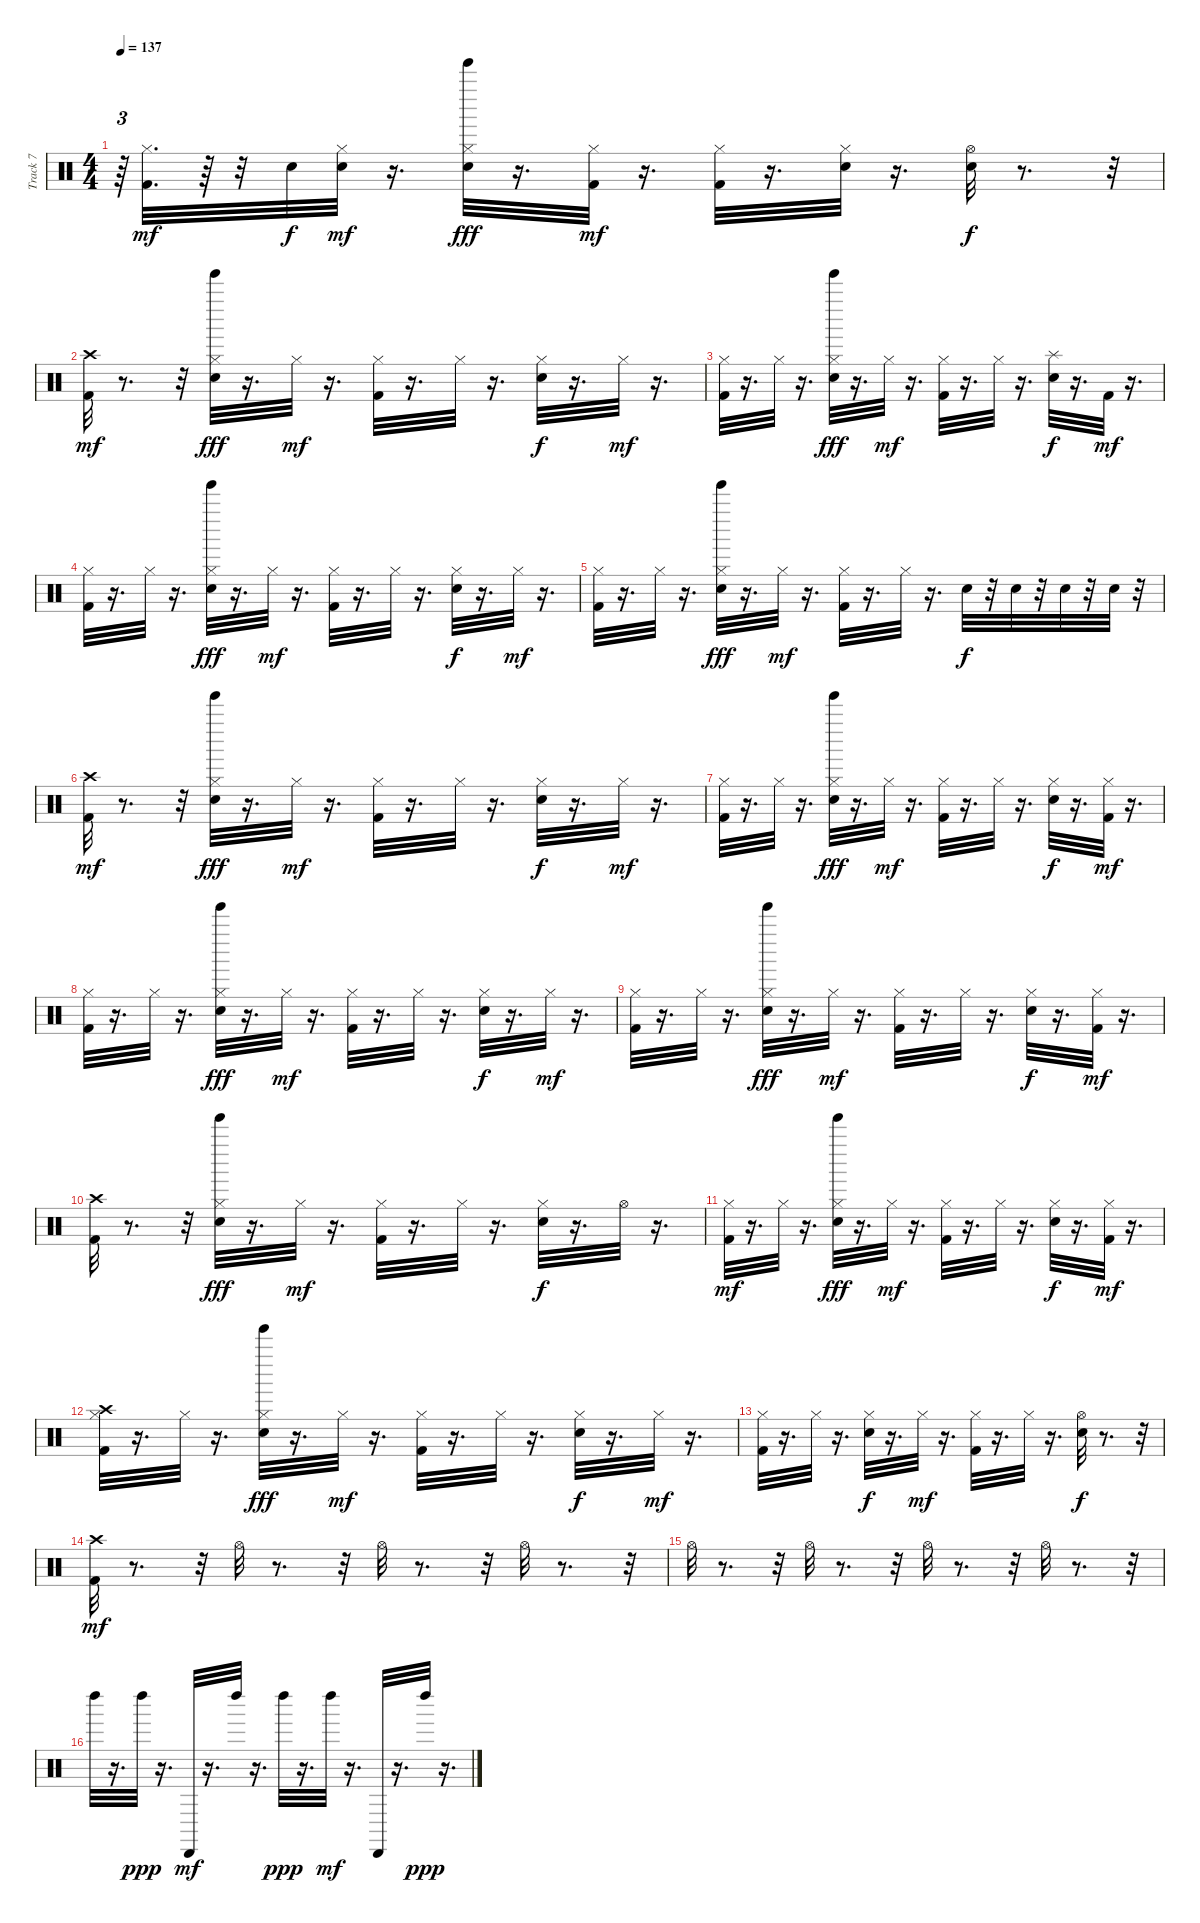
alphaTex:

\track ("Track 7" "Track 7") {instrument percussion}
\staff {score}
\articulation defaults
\ts (4 4)
\tempo 137
\clef neutral
\ks c
r.64{tu (3 2) dy mf} ("Kick (hit) 2" "Hi-Hat (closed)").32{d} r.64 r.32 "Snare (hit) 2".32{dy f} ("Hi-Hat (closed)" "Snare (hit) 2").32{dy mf} r.16{d} ("Tinkle Bell (hit)" "Snare (hit) 2" "Hi-Hat (closed)").32{dy fff} r.16{d} ("Kick (hit) 2" "Hi-Hat (closed)").32{dy mf} r.16{d} ("Kick (hit) 2" "Hi-Hat (closed)").32 r.16{d} ("Snare (hit) 2" "Hi-Hat (closed)").32 r.16{d} ("Hi-Hat (open)" "Snare (hit) 2").32{dy f} r.8{d} r.32 |
("Crash high (hit)" "Kick (hit) 2").32{dy mf} r.8{d} r.32 ("Tinkle Bell (hit)" "Snare (hit) 2" "Hi-Hat (closed)").32{dy fff} r.16{d} "Hi-Hat (closed)".32{dy mf} r.16{d} ("Kick (hit) 2" "Hi-Hat (closed)").32 r.16{d} "Hi-Hat (closed)".32 r.16{d} ("Snare (hit) 2" "Hi-Hat (closed)").32{dy f} r.16{d} "Hi-Hat (closed)".32{dy mf} r.16{d} |
("Kick (hit) 2" "Hi-Hat (closed)").32 r.16{d} "Hi-Hat (closed)".32 r.16{d} ("Tinkle Bell (hit)" "Snare (hit) 2" "Hi-Hat (closed)").32{dy fff} r.16{d} "Hi-Hat (closed)".32{dy mf} r.16{d} ("Kick (hit) 2" "Hi-Hat (closed)").32 r.16{d} "Hi-Hat (closed)".32 r.16{d} ("Splash (hit)" "Snare (hit) 2").32{dy f} r.16{d} "Kick (hit) 2".32{dy mf} r.16{d} |
("Kick (hit) 2" "Hi-Hat (closed)").32 r.16{d} "Hi-Hat (closed)".32 r.16{d} ("Tinkle Bell (hit)" "Snare (hit) 2" "Hi-Hat (closed)").32{dy fff} r.16{d} "Hi-Hat (closed)".32{dy mf} r.16{d} ("Kick (hit) 2" "Hi-Hat (closed)").32 r.16{d} "Hi-Hat (closed)".32 r.16{d} ("Snare (hit) 2" "Hi-Hat (closed)").32{dy f} r.16{d} "Hi-Hat (closed)".32{dy mf} r.16{d} |
("Kick (hit) 2" "Hi-Hat (closed)").32 r.16{d} "Hi-Hat (closed)".32 r.16{d} ("Tinkle Bell (hit)" "Snare (hit) 2" "Hi-Hat (closed)").32{dy fff} r.16{d} "Hi-Hat (closed)".32{dy mf} r.16{d} ("Kick (hit) 2" "Hi-Hat (closed)").32 r.16{d} "Hi-Hat (closed)".32 r.16{d} "Snare (hit) 2".32{dy f} r.32 "Snare (hit) 2".32 r.32 "Snare (hit) 2".32 r.32 "Snare (hit) 2".32 r.32 |
("Crash high (hit)" "Kick (hit) 2").32{dy mf} r.8{d} r.32 ("Tinkle Bell (hit)" "Snare (hit) 2" "Hi-Hat (closed)").32{dy fff} r.16{d} "Hi-Hat (closed)".32{dy mf} r.16{d} ("Kick (hit) 2" "Hi-Hat (closed)").32 r.16{d} "Hi-Hat (closed)".32 r.16{d} ("Snare (hit) 2" "Hi-Hat (closed)").32{dy f} r.16{d} "Hi-Hat (closed)".32{dy mf} r.16{d} |
("Kick (hit) 2" "Hi-Hat (closed)").32 r.16{d} "Hi-Hat (closed)".32 r.16{d} ("Tinkle Bell (hit)" "Snare (hit) 2" "Hi-Hat (closed)").32{dy fff} r.16{d} "Hi-Hat (closed)".32{dy mf} r.16{d} ("Kick (hit) 2" "Hi-Hat (closed)").32 r.16{d} "Hi-Hat (closed)".32 r.16{d} ("Snare (hit) 2" "Hi-Hat (closed)").32{dy f} r.16{d} ("Kick (hit) 2" "Hi-Hat (closed)").32{dy mf} r.16{d} |
("Kick (hit) 2" "Hi-Hat (closed)").32 r.16{d} "Hi-Hat (closed)".32 r.16{d} ("Tinkle Bell (hit)" "Snare (hit) 2" "Hi-Hat (closed)").32{dy fff} r.16{d} "Hi-Hat (closed)".32{dy mf} r.16{d} ("Kick (hit) 2" "Hi-Hat (closed)").32 r.16{d} "Hi-Hat (closed)".32 r.16{d} ("Snare (hit) 2" "Hi-Hat (closed)").32{dy f} r.16{d} "Hi-Hat (closed)".32{dy mf} r.16{d} |
("Kick (hit) 2" "Hi-Hat (closed)").32 r.16{d} "Hi-Hat (closed)".32 r.16{d} ("Tinkle Bell (hit)" "Snare (hit) 2" "Hi-Hat (closed)").32{dy fff} r.16{d} "Hi-Hat (closed)".32{dy mf} r.16{d} ("Kick (hit) 2" "Hi-Hat (closed)").32 r.16{d} "Hi-Hat (closed)".32 r.16{d} ("Snare (hit) 2" "Hi-Hat (closed)").32{dy f} r.16{d} ("Kick (hit) 2" "Hi-Hat (closed)").32{dy mf} r.16{d} |
("Crash high (hit)" "Kick (hit) 2").32 r.8{d} r.32 ("Tinkle Bell (hit)" "Snare (hit) 2" "Hi-Hat (closed)").32{dy fff} r.16{d} "Hi-Hat (closed)".32{dy mf} r.16{d} ("Kick (hit) 2" "Hi-Hat (closed)").32 r.16{d} "Hi-Hat (closed)".32 r.16{d} ("Snare (hit) 2" "Hi-Hat (closed)").32{dy f} r.16{d} "Hi-Hat (open)".32 r.16{d} |
("Kick (hit) 2" "Hi-Hat (closed)").32{dy mf} r.16{d} "Hi-Hat (closed)".32 r.16{d} ("Tinkle Bell (hit)" "Snare (hit) 2" "Hi-Hat (closed)").32{dy fff} r.16{d} "Hi-Hat (closed)".32{dy mf} r.16{d} ("Kick (hit) 2" "Hi-Hat (closed)").32 r.16{d} "Hi-Hat (closed)".32 r.16{d} ("Snare (hit) 2" "Hi-Hat (closed)").32{dy f} r.16{d} ("Kick (hit) 2" "Hi-Hat (closed)").32{dy mf} r.16{d} |
("Crash high (hit)" "Hi-Hat (closed)" "Kick (hit) 2").32 r.16{d} "Hi-Hat (closed)".32 r.16{d} ("Tinkle Bell (hit)" "Snare (hit) 2" "Hi-Hat (closed)").32{dy fff} r.16{d} "Hi-Hat (closed)".32{dy mf} r.16{d} ("Kick (hit) 2" "Hi-Hat (closed)").32 r.16{d} "Hi-Hat (closed)".32 r.16{d} ("Snare (hit) 2" "Hi-Hat (closed)").32{dy f} r.16{d} "Hi-Hat (closed)".32{dy mf} r.16{d} |
("Kick (hit) 2" "Hi-Hat (closed)").32 r.16{d} "Hi-Hat (closed)".32 r.16{d} ("Snare (hit) 2" "Hi-Hat (closed)").32{dy f} r.16{d} "Hi-Hat (closed)".32{dy mf} r.16{d} ("Kick (hit) 2" "Hi-Hat (closed)").32 r.16{d} "Hi-Hat (closed)".32 r.16{d} ("Hi-Hat (open)" "Snare (hit) 2").32{dy f} r.8{d} r.32 |
("Crash high (hit)" "Kick (hit) 2").32{dy mf} r.8{d} r.32 "Hi-Hat (open)".32 r.8{d} r.32 "Hi-Hat (open)".32 r.8{d} r.32 "Hi-Hat (open)".32 r.8{d} r.32 |
"Hi-Hat (open)".32 r.8{d} r.32 "Hi-Hat (open)".32 r.8{d} r.32 "Hi-Hat (open)".32 r.8{d} r.32 "Hi-Hat (open)".32 r.8{d} r.32 |
"Left Maraca (hit)".32 r.16{d} "Left Maraca (hit)".32{dy ppp} r.16{d} "Cabasa (hit)".32{dy mf} r.16{d} "Left Maraca (hit)".32 r.16{d} "Left Maraca (hit)".32{dy ppp} r.16{d} "Left Maraca (hit)".32{dy mf} r.16{d} "Cabasa (hit)".32 r.16{d} "Left Maraca (hit)".32{dy ppp} r.16{d}
